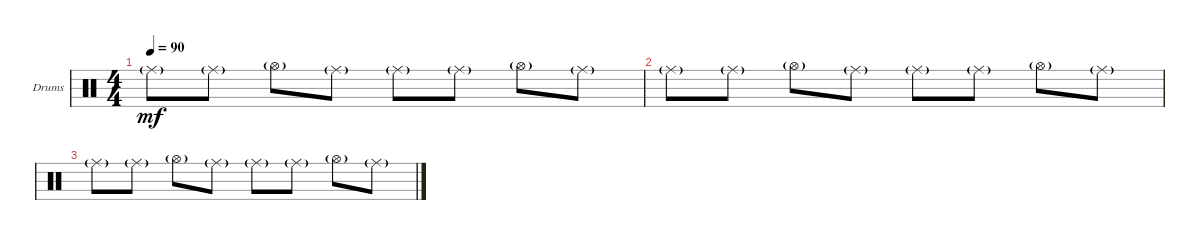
\defaultSystemsLayout 4
\bracketExtendMode groupsimilarinstruments
\firstSystemTrackNameOrientation horizontal
\otherSystemsTrackNameOrientation horizontal
\track ("Drumkit" "Drums") {instrument percussion}
\staff {score}
\articulation defaults
\ts (4 4)
\tempo 90
\clef neutral
\ks c "Ride (middle)"{g}.8{dy mf} "Ride (middle)"{g}.8 "Hi-Hat (open)"{g}.8 "Ride (middle)"{g}.8 "Ride (middle)"{g}.8 "Ride (middle)"{g}.8 "Hi-Hat (open)"{g}.8 "Ride (middle)"{g}.8
|
"Ride (middle)"{g}.8 "Ride (middle)"{g}.8 "Hi-Hat (open)"{g}.8 "Ride (middle)"{g}.8 "Ride (middle)"{g}.8 "Ride (middle)"{g}.8 "Hi-Hat (open)"{g}.8 "Ride (middle)"{g}.8 |
"Ride (middle)"{g}.8 "Ride (middle)"{g}.8 "Hi-Hat (open)"{g}.8 "Ride (middle)"{g}.8 "Ride (middle)"{g}.8 "Ride (middle)"{g}.8 "Hi-Hat (open)"{g}.8 "Ride (middle)"{g}.8
